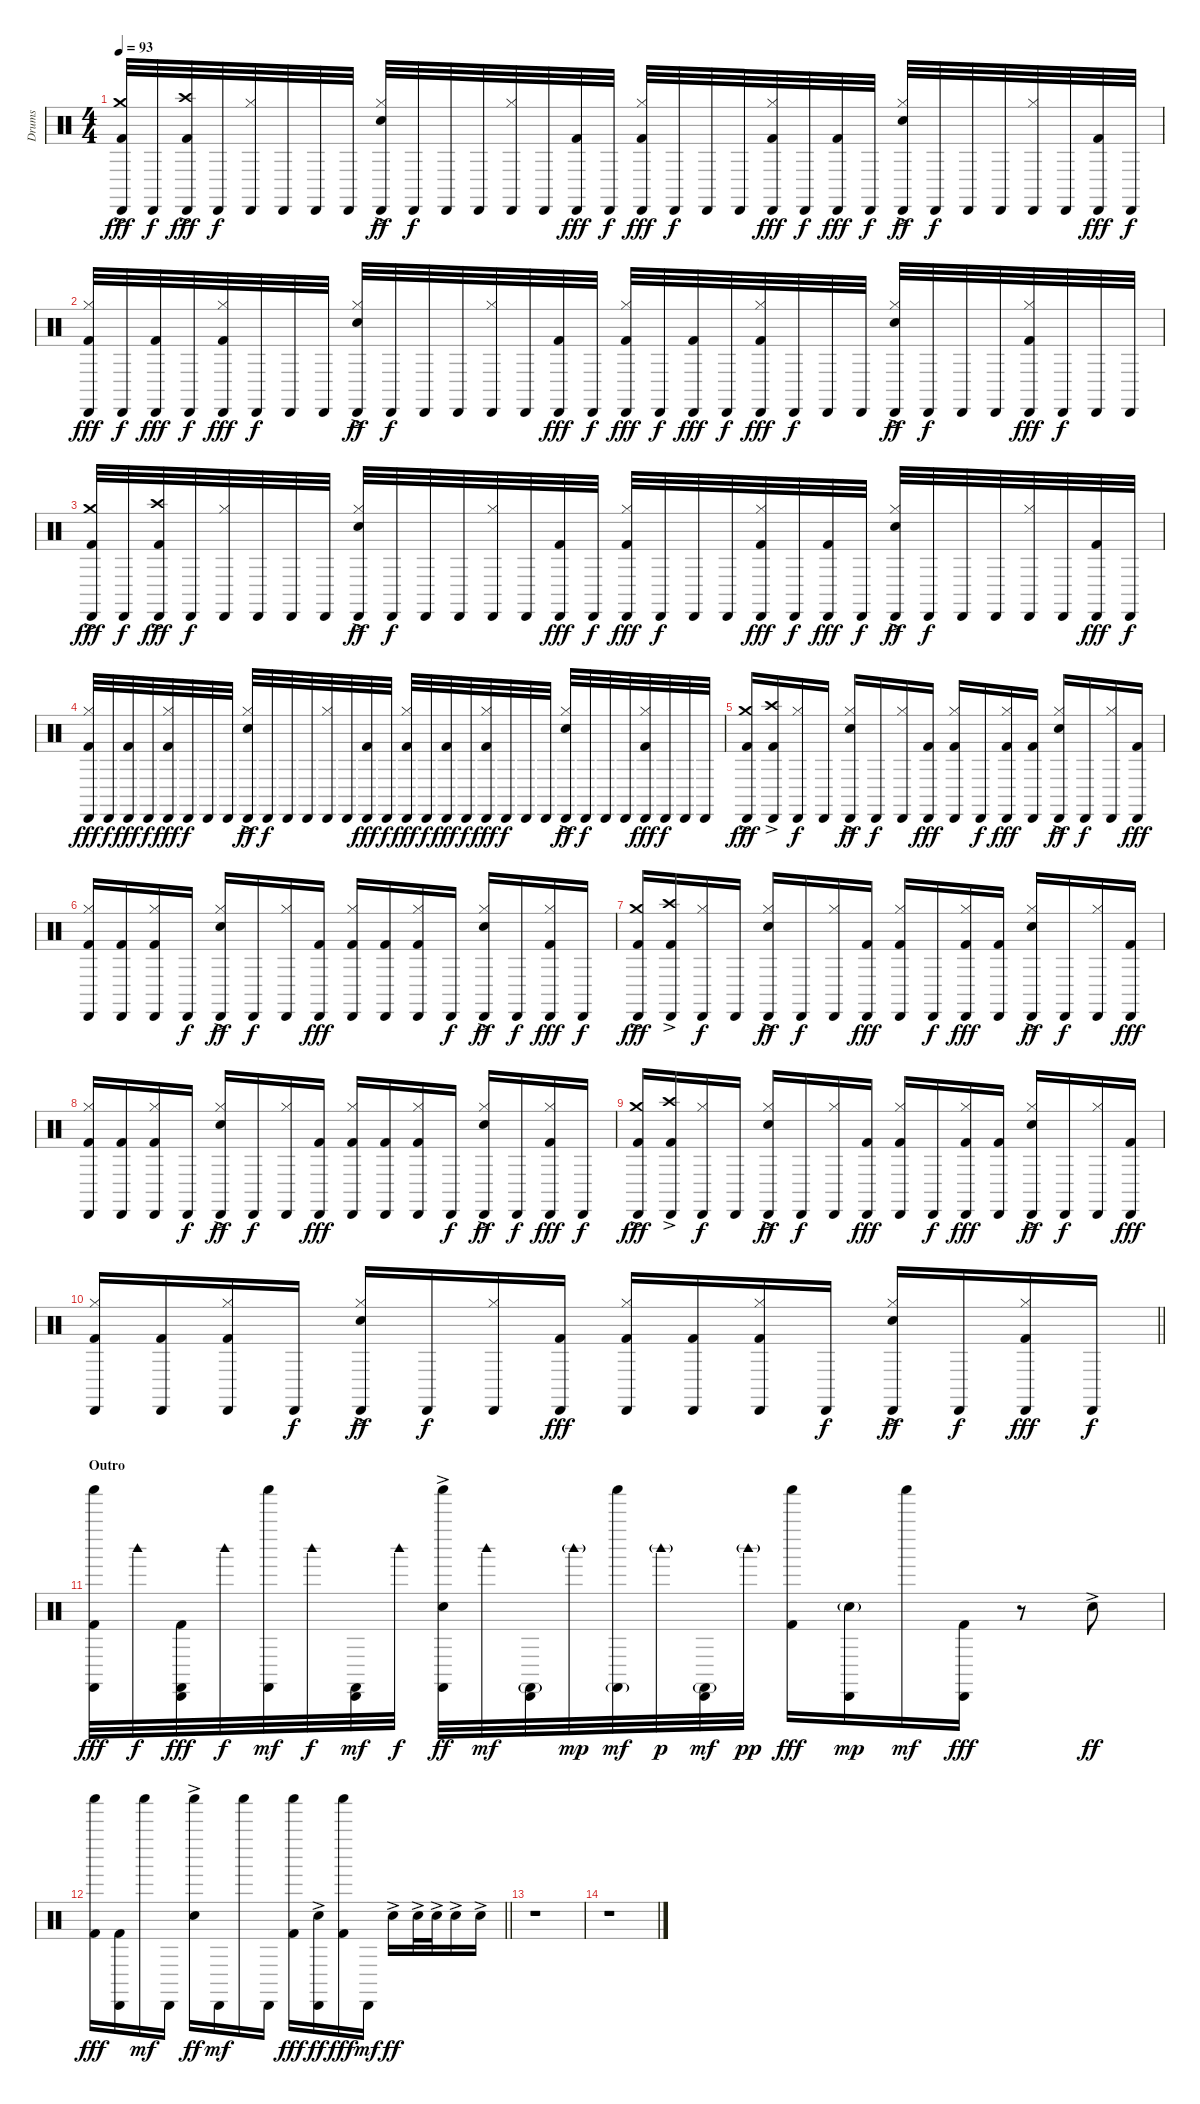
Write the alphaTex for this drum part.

\track ("Drums" "Drums") {instrument percussion}
\staff {score}
\articulation defaults
\ts (4 4)
\tempo 93
\clef neutral
\ks c
("Crash medium (hit)"{ac} "Cabasa (hit)" "Kick (hit) 2").32{dy fff} "Cabasa (hit)".32{dy f} ("Crash high (hit)"{ac} "Cabasa (hit)" "Kick (hit) 2").32{dy fff} "Cabasa (hit)".32{dy f} ("Cabasa (hit)" "Hi-Hat (closed)").32 "Cabasa (hit)".32 "Cabasa (hit)".32 "Cabasa (hit)".32 ("Cabasa (hit)" "Hi-Hat (closed)" "Electric Snare (hit)"{ac}).32{dy ff} "Cabasa (hit)".32{dy f} "Cabasa (hit)".32 "Cabasa (hit)".32 ("Cabasa (hit)" "Hi-Hat (closed)").32 "Cabasa (hit)".32 ("Cabasa (hit)" "Kick (hit) 2").32{dy fff} "Cabasa (hit)".32{dy f} ("Cabasa (hit)" "Hi-Hat (closed)" "Kick (hit) 2").32{dy fff} "Cabasa (hit)".32{dy f} "Cabasa (hit)".32 "Cabasa (hit)".32 ("Cabasa (hit)" "Hi-Hat (closed)" "Kick (hit) 2").32{dy fff} "Cabasa (hit)".32{dy f} ("Cabasa (hit)" "Kick (hit) 2").32{dy fff} "Cabasa (hit)".32{dy f} ("Cabasa (hit)" "Hi-Hat (closed)" "Electric Snare (hit)"{ac}).32{dy ff} "Cabasa (hit)".32{dy f} "Cabasa (hit)".32 "Cabasa (hit)".32 ("Cabasa (hit)" "Hi-Hat (closed)").32 "Cabasa (hit)".32 ("Cabasa (hit)" "Kick (hit) 2").32{dy fff} "Cabasa (hit)".32{dy f} |
("Cabasa (hit)" "Hi-Hat (closed)" "Kick (hit) 2").32{dy fff} "Cabasa (hit)".32{dy f} ("Cabasa (hit)" "Kick (hit) 2").32{dy fff} "Cabasa (hit)".32{dy f} ("Cabasa (hit)" "Hi-Hat (closed)" "Kick (hit) 2").32{dy fff} "Cabasa (hit)".32{dy f} "Cabasa (hit)".32 "Cabasa (hit)".32 ("Cabasa (hit)" "Hi-Hat (closed)" "Electric Snare (hit)"{ac}).32{dy ff} "Cabasa (hit)".32{dy f} "Cabasa (hit)".32 "Cabasa (hit)".32 ("Cabasa (hit)" "Hi-Hat (closed)").32 "Cabasa (hit)".32 ("Cabasa (hit)" "Kick (hit) 2").32{dy fff} "Cabasa (hit)".32{dy f} ("Cabasa (hit)" "Hi-Hat (closed)" "Kick (hit) 2").32{dy fff} "Cabasa (hit)".32{dy f} ("Cabasa (hit)" "Kick (hit) 2").32{dy fff} "Cabasa (hit)".32{dy f} ("Cabasa (hit)" "Hi-Hat (closed)" "Kick (hit) 2").32{dy fff} "Cabasa (hit)".32{dy f} "Cabasa (hit)".32 "Cabasa (hit)".32 ("Cabasa (hit)" "Hi-Hat (closed)" "Electric Snare (hit)"{ac}).32{dy ff} "Cabasa (hit)".32{dy f} "Cabasa (hit)".32 "Cabasa (hit)".32 ("Cabasa (hit)" "Hi-Hat (closed)" "Kick (hit) 2").32{dy fff} "Cabasa (hit)".32{dy f} "Cabasa (hit)".32 "Cabasa (hit)".32 |
("Crash medium (hit)"{ac} "Cabasa (hit)" "Kick (hit) 2").32{dy fff} "Cabasa (hit)".32{dy f} ("Crash high (hit)"{ac} "Cabasa (hit)" "Kick (hit) 2").32{dy fff} "Cabasa (hit)".32{dy f} ("Cabasa (hit)" "Hi-Hat (closed)").32 "Cabasa (hit)".32 "Cabasa (hit)".32 "Cabasa (hit)".32 ("Cabasa (hit)" "Hi-Hat (closed)" "Electric Snare (hit)"{ac}).32{dy ff} "Cabasa (hit)".32{dy f} "Cabasa (hit)".32 "Cabasa (hit)".32 ("Cabasa (hit)" "Hi-Hat (closed)").32 "Cabasa (hit)".32 ("Cabasa (hit)" "Kick (hit) 2").32{dy fff} "Cabasa (hit)".32{dy f} ("Cabasa (hit)" "Hi-Hat (closed)" "Kick (hit) 2").32{dy fff} "Cabasa (hit)".32{dy f} "Cabasa (hit)".32 "Cabasa (hit)".32 ("Cabasa (hit)" "Hi-Hat (closed)" "Kick (hit) 2").32{dy fff} "Cabasa (hit)".32{dy f} ("Cabasa (hit)" "Kick (hit) 2").32{dy fff} "Cabasa (hit)".32{dy f} ("Cabasa (hit)" "Hi-Hat (closed)" "Electric Snare (hit)"{ac}).32{dy ff} "Cabasa (hit)".32{dy f} "Cabasa (hit)".32 "Cabasa (hit)".32 ("Cabasa (hit)" "Hi-Hat (closed)").32 "Cabasa (hit)".32 ("Cabasa (hit)" "Kick (hit) 2").32{dy fff} "Cabasa (hit)".32{dy f} |
("Cabasa (hit)" "Hi-Hat (closed)" "Kick (hit) 2").32{dy fff} "Cabasa (hit)".32{dy f} ("Cabasa (hit)" "Kick (hit) 2").32{dy fff} "Cabasa (hit)".32{dy f} ("Cabasa (hit)" "Hi-Hat (closed)" "Kick (hit) 2").32{dy fff} "Cabasa (hit)".32{dy f} "Cabasa (hit)".32 "Cabasa (hit)".32 ("Cabasa (hit)" "Hi-Hat (closed)" "Electric Snare (hit)"{ac}).32{dy ff} "Cabasa (hit)".32{dy f} "Cabasa (hit)".32 "Cabasa (hit)".32 ("Cabasa (hit)" "Hi-Hat (closed)").32 "Cabasa (hit)".32 ("Cabasa (hit)" "Kick (hit) 2").32{dy fff} "Cabasa (hit)".32{dy f} ("Cabasa (hit)" "Hi-Hat (closed)" "Kick (hit) 2").32{dy fff} "Cabasa (hit)".32{dy f} ("Cabasa (hit)" "Kick (hit) 2").32{dy fff} "Cabasa (hit)".32{dy f} ("Cabasa (hit)" "Hi-Hat (closed)" "Kick (hit) 2").32{dy fff} "Cabasa (hit)".32{dy f} "Cabasa (hit)".32 "Cabasa (hit)".32 ("Cabasa (hit)" "Hi-Hat (closed)" "Electric Snare (hit)"{ac}).32{dy ff} "Cabasa (hit)".32{dy f} "Cabasa (hit)".32 "Cabasa (hit)".32 ("Cabasa (hit)" "Hi-Hat (closed)" "Kick (hit) 2").32{dy fff} "Cabasa (hit)".32{dy f} "Cabasa (hit)".32 "Cabasa (hit)".32 |
("Crash medium (hit)"{ac} "Cabasa (hit)" "Kick (hit) 2").16{dy fff} ("Crash high (hit)"{ac} "Cabasa (hit)" "Kick (hit) 2").16 ("Cabasa (hit)" "Hi-Hat (closed)").16{dy f} "Cabasa (hit)".16 ("Cabasa (hit)" "Hi-Hat (closed)" "Electric Snare (hit)"{ac}).16{dy ff} "Cabasa (hit)".16{dy f} ("Cabasa (hit)" "Hi-Hat (closed)").16 ("Cabasa (hit)" "Kick (hit) 2").16{dy fff} ("Cabasa (hit)" "Hi-Hat (closed)" "Kick (hit) 2").16 "Cabasa (hit)".16{dy f} ("Cabasa (hit)" "Hi-Hat (closed)" "Kick (hit) 2").16{dy fff} ("Cabasa (hit)" "Kick (hit) 2").16 ("Cabasa (hit)" "Hi-Hat (closed)" "Electric Snare (hit)"{ac}).16{dy ff} "Cabasa (hit)".16{dy f} ("Cabasa (hit)" "Hi-Hat (closed)").16 ("Cabasa (hit)" "Kick (hit) 2").16{dy fff} |
("Cabasa (hit)" "Hi-Hat (closed)" "Kick (hit) 2").16 ("Cabasa (hit)" "Kick (hit) 2").16 ("Cabasa (hit)" "Hi-Hat (closed)" "Kick (hit) 2").16 "Cabasa (hit)".16{dy f} ("Cabasa (hit)" "Hi-Hat (closed)" "Electric Snare (hit)"{ac}).16{dy ff} "Cabasa (hit)".16{dy f} ("Cabasa (hit)" "Hi-Hat (closed)").16 ("Cabasa (hit)" "Kick (hit) 2").16{dy fff} ("Cabasa (hit)" "Hi-Hat (closed)" "Kick (hit) 2").16 ("Cabasa (hit)" "Kick (hit) 2").16 ("Cabasa (hit)" "Hi-Hat (closed)" "Kick (hit) 2").16 "Cabasa (hit)".16{dy f} ("Cabasa (hit)" "Hi-Hat (closed)" "Electric Snare (hit)"{ac}).16{dy ff} "Cabasa (hit)".16{dy f} ("Cabasa (hit)" "Hi-Hat (closed)" "Kick (hit) 2").16{dy fff} "Cabasa (hit)".16{dy f} |
("Crash medium (hit)"{ac} "Cabasa (hit)" "Kick (hit) 2").16{dy fff} ("Crash high (hit)"{ac} "Cabasa (hit)" "Kick (hit) 2").16 ("Cabasa (hit)" "Hi-Hat (closed)").16{dy f} "Cabasa (hit)".16 ("Cabasa (hit)" "Hi-Hat (closed)" "Electric Snare (hit)"{ac}).16{dy ff} "Cabasa (hit)".16{dy f} ("Cabasa (hit)" "Hi-Hat (closed)").16 ("Cabasa (hit)" "Kick (hit) 2").16{dy fff} ("Cabasa (hit)" "Hi-Hat (closed)" "Kick (hit) 2").16 "Cabasa (hit)".16{dy f} ("Cabasa (hit)" "Hi-Hat (closed)" "Kick (hit) 2").16{dy fff} ("Cabasa (hit)" "Kick (hit) 2").16 ("Cabasa (hit)" "Hi-Hat (closed)" "Electric Snare (hit)"{ac}).16{dy ff} "Cabasa (hit)".16{dy f} ("Cabasa (hit)" "Hi-Hat (closed)").16 ("Cabasa (hit)" "Kick (hit) 2").16{dy fff} |
("Cabasa (hit)" "Hi-Hat (closed)" "Kick (hit) 2").16 ("Cabasa (hit)" "Kick (hit) 2").16 ("Cabasa (hit)" "Hi-Hat (closed)" "Kick (hit) 2").16 "Cabasa (hit)".16{dy f} ("Cabasa (hit)" "Hi-Hat (closed)" "Electric Snare (hit)"{ac}).16{dy ff} "Cabasa (hit)".16{dy f} ("Cabasa (hit)" "Hi-Hat (closed)").16 ("Cabasa (hit)" "Kick (hit) 2").16{dy fff} ("Cabasa (hit)" "Hi-Hat (closed)" "Kick (hit) 2").16 ("Cabasa (hit)" "Kick (hit) 2").16 ("Cabasa (hit)" "Hi-Hat (closed)" "Kick (hit) 2").16 "Cabasa (hit)".16{dy f} ("Cabasa (hit)" "Hi-Hat (closed)" "Electric Snare (hit)"{ac}).16{dy ff} "Cabasa (hit)".16{dy f} ("Cabasa (hit)" "Hi-Hat (closed)" "Kick (hit) 2").16{dy fff} "Cabasa (hit)".16{dy f} |
("Crash medium (hit)"{ac} "Cabasa (hit)" "Kick (hit) 2").16{dy fff} ("Crash high (hit)"{ac} "Cabasa (hit)" "Kick (hit) 2").16 ("Cabasa (hit)" "Hi-Hat (closed)").16{dy f} "Cabasa (hit)".16 ("Cabasa (hit)" "Hi-Hat (closed)" "Electric Snare (hit)"{ac}).16{dy ff} "Cabasa (hit)".16{dy f} ("Cabasa (hit)" "Hi-Hat (closed)").16 ("Cabasa (hit)" "Kick (hit) 2").16{dy fff} ("Cabasa (hit)" "Hi-Hat (closed)" "Kick (hit) 2").16 "Cabasa (hit)".16{dy f} ("Cabasa (hit)" "Hi-Hat (closed)" "Kick (hit) 2").16{dy fff} ("Cabasa (hit)" "Kick (hit) 2").16 ("Cabasa (hit)" "Hi-Hat (closed)" "Electric Snare (hit)"{ac}).16{dy ff} "Cabasa (hit)".16{dy f} ("Cabasa (hit)" "Hi-Hat (closed)").16 ("Cabasa (hit)" "Kick (hit) 2").16{dy fff} |
\barLineRight lightlight
("Cabasa (hit)" "Hi-Hat (closed)" "Kick (hit) 2").16 ("Cabasa (hit)" "Kick (hit) 2").16 ("Cabasa (hit)" "Hi-Hat (closed)" "Kick (hit) 2").16 "Cabasa (hit)".16{dy f} ("Cabasa (hit)" "Hi-Hat (closed)" "Electric Snare (hit)"{ac}).16{dy ff} "Cabasa (hit)".16{dy f} ("Cabasa (hit)" "Hi-Hat (closed)").16 ("Cabasa (hit)" "Kick (hit) 2").16{dy fff} ("Cabasa (hit)" "Hi-Hat (closed)" "Kick (hit) 2").16 ("Cabasa (hit)" "Kick (hit) 2").16 ("Cabasa (hit)" "Hi-Hat (closed)" "Kick (hit) 2").16 "Cabasa (hit)".16{dy f} ("Cabasa (hit)" "Hi-Hat (closed)" "Electric Snare (hit)"{ac}).16{dy ff} "Cabasa (hit)".16{dy f} ("Cabasa (hit)" "Hi-Hat (closed)" "Kick (hit) 2").16{dy fff} "Cabasa (hit)".16{dy f} |
\section ("" "Outro")
("Castanets (hit)" "Shaker (hit)" "Kick (hit) 2").32{dy fff} "Woodblock high (hit)".32{dy f} ("Castanets (hit)" "Cabasa (hit)" "Kick (hit) 2").32{dy fff} "Woodblock high (hit)".32{dy f} ("Castanets (hit)" "Shaker (hit)").32{dy mf} "Woodblock high (hit)".32{dy f} ("Castanets (hit)" "Cabasa (hit)").32{dy mf} "Woodblock high (hit)".32{dy f} ("Castanets (hit)" "Shaker (hit)" "Electric Snare (hit)"{ac}).32{dy ff} "Woodblock high (hit)".32{dy mf} ("Castanets (hit)"{g} "Cabasa (hit)").32 "Woodblock high (hit)"{g}.32{dy mp} ("Castanets (hit)"{g} "Shaker (hit)").32{dy mf} "Woodblock high (hit)"{g}.32{dy p} ("Castanets (hit)"{g} "Cabasa (hit)").32{dy mf} "Woodblock high (hit)"{g}.32{dy pp} ("Shaker (hit)" "Kick (hit) 2").16{dy fff} ("Cabasa (hit)" "Electric Snare (hit)"{g}).16{dy mp} "Shaker (hit)".16{dy mf} ("Cabasa (hit)" "Kick (hit) 2").16{dy fff} r.8 "Electric Snare (hit)"{ac}.8{dy ff} |
\barLineRight lightlight
("Shaker (hit)" "Kick (hit) 2").16{dy fff} ("Cabasa (hit)" "Kick (hit) 2").16 "Shaker (hit)".16{dy mf} "Cabasa (hit)".16 ("Shaker (hit)" "Electric Snare (hit)"{ac}).16{dy ff} "Cabasa (hit)".16{dy mf} "Shaker (hit)".16 "Cabasa (hit)".16 ("Shaker (hit)" "Kick (hit) 2").16{dy fff} ("Cabasa (hit)" "Electric Snare (hit)"{ac}).16{dy ff} ("Shaker (hit)" "Kick (hit) 2").16{dy fff} "Cabasa (hit)".16{dy mf} "Electric Snare (hit)"{ac}.16{dy ff} "Electric Snare (hit)"{ac}.32 "Electric Snare (hit)"{ac}.32 "Electric Snare (hit)"{ac}.16 "Electric Snare (hit)"{ac}.16 |
r.1 |
r.1
